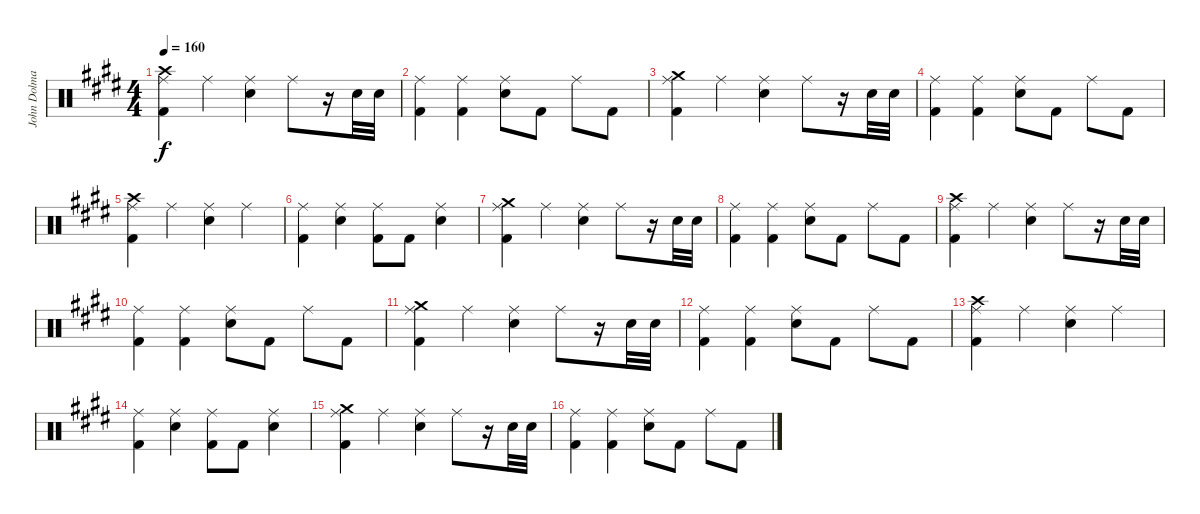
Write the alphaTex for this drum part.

\track ("John Dolmayan [Drums]" "John Dolma") {instrument percussion}
\staff {score}
\articulation defaults
\ts (4 4)
\tempo 160
\clef neutral
\ks c#minor
("Crash high (hit)" "Ride (middle)" "Kick (hit) 2").4{dy f} "Ride (middle)".4 ("Ride (middle)" "Electric Snare (hit)").4 "Ride (middle)".8 r.16 "Electric Snare (hit)".32 "Electric Snare (hit)".32 |
("Ride (middle)" "Kick (hit) 2").4 ("Ride (middle)" "Kick (hit) 2").4 ("Ride (middle)" "Electric Snare (hit)").8 "Kick (hit) 2".8 "Ride (middle)".8 "Kick (hit) 2".8 |
("Crash medium (hit)" "Ride (middle)" "Kick (hit) 2").4 "Ride (middle)".4 ("Ride (middle)" "Electric Snare (hit)").4 "Ride (middle)".8 r.16 "Electric Snare (hit)".32 "Electric Snare (hit)".32 |
("Ride (middle)" "Kick (hit) 2").4 ("Ride (middle)" "Kick (hit) 2").4 ("Ride (middle)" "Electric Snare (hit)").8 "Kick (hit) 2".8 "Ride (middle)".8 "Kick (hit) 2".8 |
("Crash high (hit)" "Ride (middle)" "Kick (hit) 2").4 "Ride (middle)".4 ("Ride (middle)" "Electric Snare (hit)").4 "Ride (middle)".4 |
("Ride (middle)" "Kick (hit) 2").4 ("Ride (middle)" "Electric Snare (hit)").4 ("Ride (middle)" "Kick (hit) 2").8 "Kick (hit) 2".8 ("Ride (middle)" "Electric Snare (hit)").4 |
("Crash medium (hit)" "Ride (middle)" "Kick (hit) 2").4 "Ride (middle)".4 ("Ride (middle)" "Electric Snare (hit)").4 "Ride (middle)".8 r.16 "Electric Snare (hit)".32 "Electric Snare (hit)".32 |
("Ride (middle)" "Kick (hit) 2").4 ("Ride (middle)" "Kick (hit) 2").4 ("Ride (middle)" "Electric Snare (hit)").8 "Kick (hit) 2".8 "Ride (middle)".8 "Kick (hit) 2".8 |
("Crash high (hit)" "Ride (middle)" "Kick (hit) 2").4 "Ride (middle)".4 ("Ride (middle)" "Electric Snare (hit)").4 "Ride (middle)".8 r.16 "Electric Snare (hit)".32 "Electric Snare (hit)".32 |
("Ride (middle)" "Kick (hit) 2").4 ("Ride (middle)" "Kick (hit) 2").4 ("Ride (middle)" "Electric Snare (hit)").8 "Kick (hit) 2".8 "Ride (middle)".8 "Kick (hit) 2".8 |
("Crash medium (hit)" "Ride (middle)" "Kick (hit) 2").4 "Ride (middle)".4 ("Ride (middle)" "Electric Snare (hit)").4 "Ride (middle)".8 r.16 "Electric Snare (hit)".32 "Electric Snare (hit)".32 |
("Ride (middle)" "Kick (hit) 2").4 ("Ride (middle)" "Kick (hit) 2").4 ("Ride (middle)" "Electric Snare (hit)").8 "Kick (hit) 2".8 "Ride (middle)".8 "Kick (hit) 2".8 |
("Crash high (hit)" "Ride (middle)" "Kick (hit) 2").4 "Ride (middle)".4 ("Ride (middle)" "Electric Snare (hit)").4 "Ride (middle)".4 |
("Ride (middle)" "Kick (hit) 2").4 ("Ride (middle)" "Electric Snare (hit)").4 ("Ride (middle)" "Kick (hit) 2").8 "Kick (hit) 2".8 ("Ride (middle)" "Electric Snare (hit)").4 |
("Crash medium (hit)" "Ride (middle)" "Kick (hit) 2").4 "Ride (middle)".4 ("Ride (middle)" "Electric Snare (hit)").4 "Ride (middle)".8 r.16 "Electric Snare (hit)".32 "Electric Snare (hit)".32 |
("Ride (middle)" "Kick (hit) 2").4 ("Ride (middle)" "Kick (hit) 2").4 ("Ride (middle)" "Electric Snare (hit)").8 "Kick (hit) 2".8 "Ride (middle)".8 "Kick (hit) 2".8
